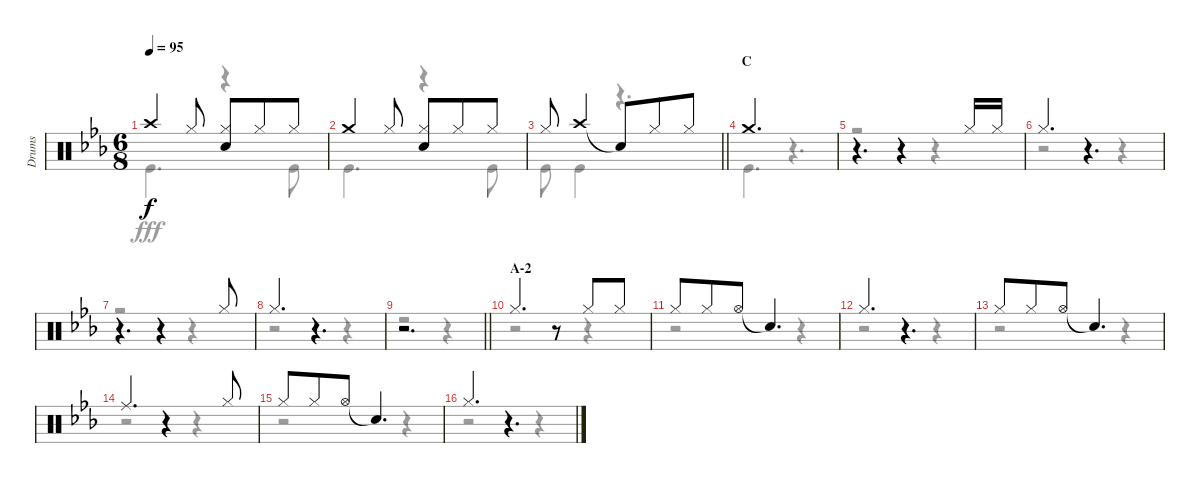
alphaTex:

\track ("Drums" "Drums") {instrument percussion}
\staff {score}
\articulation defaults
\voice
\ts (6 8)
\tempo 95
\clef neutral
\ks eb "Crash high (hit)".4{dy f} "Hi-Hat (closed)".8
("Hi-Hat (closed)" "Snare (hit) 2").8 "Hi-Hat (closed)".8 "Hi-Hat (closed)".8 |
"Crash medium (hit)".4 "Hi-Hat (closed)".8 ("Hi-Hat (closed)" "Snare (hit) 2").8 "Hi-Hat (closed)".8 "Hi-Hat (closed)".8 |
\barLineRight lightlight "Hi-Hat (closed)".8 "Crash high (hit)".4 "Snare (hit)"{t}.8 "Hi-Hat (closed)".8 "Hi-Hat (closed)".8
|
\section ("" "C")
"Crash medium (hit)".2{d} |
r.4{d} r.4 "Hi-Hat (closed)".16 "Hi-Hat (closed)".16 |
"Hi-Hat (closed)".4{d} r.4{d} |
r.4{d} r.4 "Hi-Hat (closed)".8 |
"Hi-Hat (closed)".4{d} r.4{d} |
\barLineRight lightlight
r.2{d} |
\section ("" "A-2")
"Hi-Hat (closed)".4{d} r.8 "Hi-Hat (closed)".8 "Hi-Hat (closed)".8 |
"Hi-Hat (closed)".8 "Hi-Hat (closed)".8 "Hi-Hat (open)".8 "Snare (hit)"{t}.4{d} |
"Hi-Hat (closed)".4{d} r.4{d} |
"Hi-Hat (closed)".8 "Hi-Hat (closed)".8 "Hi-Hat (open)".8 "Snare (hit)"{t}.4{d} |
"Ride (middle)".4{d} r.4 "Hi-Hat (closed)".8 |
"Hi-Hat (closed)".8 "Hi-Hat (closed)".8 "Hi-Hat (open)".8 "Snare (hit)"{t}.4{d} |
"Hi-Hat (closed)".4{d} r.4{d}
\voice
\clef neutral
\ottava regular
\simile none
\ks eb "Kick (hit)".4{d dy fff}
r.4 "Kick (hit)".8 |
"Kick (hit)".4{d} r.4 "Kick (hit)".8 |
\barLineRight lightlight "Kick (hit)".8 "Kick (hit)".4
r.4{d} |
"Kick (hit)".4{d} r.4{d} |
r.2 r.4 |
r.2 r.4 |
r.2 r.4 |
r.2 r.4 |
\barLineRight lightlight
r.2 r.4 |
r.2 r.4 |
r.2 r.4 |
r.2 r.4 |
r.2 r.4 |
r.2 r.4 |
r.2 r.4 |
r.2 r.4
